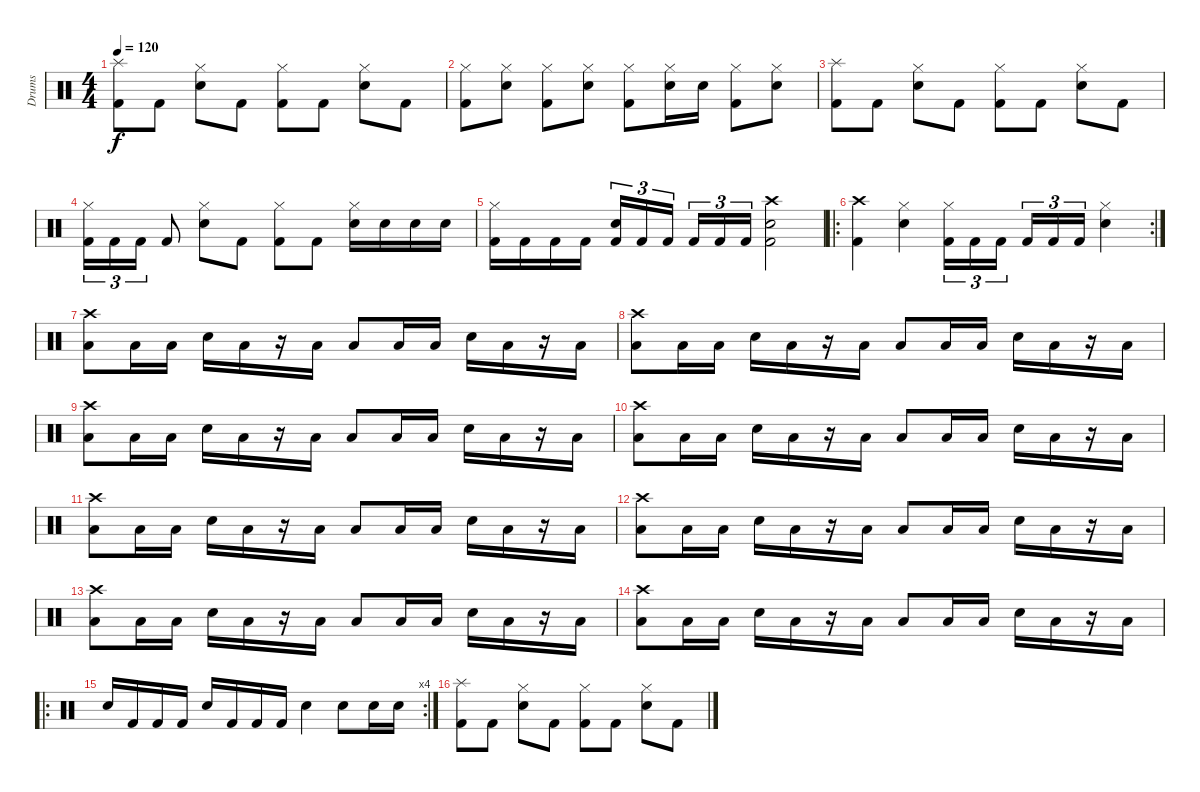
\track ("Drums" "Drums") {instrument percussion}
\staff {score}
\articulation defaults
\ts (4 4)
\tempo 120
\clef neutral
\ks c
("Splash (hit)" "Kick (hit) 2").8{dy f} "Kick (hit) 2".8 ("Hi-Hat (closed)" "Electric Snare (hit)").8 "Kick (hit) 2".8 ("Hi-Hat (closed)" "Kick (hit) 2").8 "Kick (hit) 2".8 ("Hi-Hat (closed)" "Electric Snare (hit)").8 "Kick (hit) 2".8 |
("Hi-Hat (closed)" "Kick (hit) 2").8 ("Hi-Hat (closed)" "Electric Snare (hit)").8 ("Hi-Hat (closed)" "Kick (hit) 2").8 ("Hi-Hat (closed)" "Electric Snare (hit)").8 ("Hi-Hat (closed)" "Kick (hit) 2").8 ("Hi-Hat (closed)" "Electric Snare (hit)").16 "Electric Snare (hit)".16 ("Hi-Hat (closed)" "Kick (hit) 2").8 ("Hi-Hat (closed)" "Electric Snare (hit)").8 |
("Splash (hit)" "Kick (hit) 2").8 "Kick (hit) 2".8 ("Hi-Hat (closed)" "Electric Snare (hit)").8 "Kick (hit) 2".8 ("Hi-Hat (closed)" "Kick (hit) 2").8 "Kick (hit) 2".8 ("Hi-Hat (closed)" "Electric Snare (hit)").8 "Kick (hit) 2".8 |
("Hi-Hat (closed)" "Kick (hit) 2").16{tu (3 2)} "Kick (hit) 2".16{tu (3 2)} "Kick (hit) 2".16{tu (3 2)} "Kick (hit) 2".8 ("Hi-Hat (closed)" "Electric Snare (hit)").8 "Kick (hit) 2".8 ("Hi-Hat (closed)" "Kick (hit) 2").8 "Kick (hit) 2".8 ("Hi-Hat (closed)" "Electric Snare (hit)").16 "Electric Snare (hit)".16 "Electric Snare (hit)".16 "Electric Snare (hit)".16 |
("Hi-Hat (closed)" "Kick (hit) 2").16 "Kick (hit) 2".16 "Kick (hit) 2".16 "Kick (hit) 2".16 ("Electric Snare (hit)" "Kick (hit) 2").16{tu (3 2)} "Kick (hit) 2".16{tu (3 2)} "Kick (hit) 2".16{tu (3 2)} "Kick (hit) 2".16{tu (3 2)} "Kick (hit) 2".16{tu (3 2)} "Kick (hit) 2".16{tu (3 2)} ("Crash high (hit)" "Electric Snare (hit)" "Kick (hit) 2").2 |
\ro
\rc 2
("Crash high (hit)" "Kick (hit) 2").4 ("Hi-Hat (closed)" "Electric Snare (hit)").4 ("Hi-Hat (closed)" "Kick (hit) 2").16{tu (3 2)} "Kick (hit) 2".16{tu (3 2)} "Kick (hit) 2".16{tu (3 2)} "Kick (hit) 2".16{tu (3 2)} "Kick (hit) 2".16{tu (3 2)} "Kick (hit) 2".16{tu (3 2)} ("Hi-Hat (closed)" "Electric Snare (hit)").4 |
("Crash high (hit)" "Low Floor Tom (hit)").8 "Low Floor Tom (hit)".16 "Low Floor Tom (hit)".16 "Electric Snare (hit)".16 "Low Floor Tom (hit)".16 r.16 "Low Floor Tom (hit)".16 "Low Floor Tom (hit)".8 "Low Floor Tom (hit)".16 "Low Floor Tom (hit)".16 "Electric Snare (hit)".16 "Low Floor Tom (hit)".16 r.16 "Low Floor Tom (hit)".16 |
("Crash high (hit)" "Low Floor Tom (hit)").8 "Low Floor Tom (hit)".16 "Low Floor Tom (hit)".16 "Electric Snare (hit)".16 "Low Floor Tom (hit)".16 r.16 "Low Floor Tom (hit)".16 "Low Floor Tom (hit)".8 "Low Floor Tom (hit)".16 "Low Floor Tom (hit)".16 "Electric Snare (hit)".16 "Low Floor Tom (hit)".16 r.16 "Low Floor Tom (hit)".16 |
("Crash high (hit)" "Low Floor Tom (hit)").8 "Low Floor Tom (hit)".16 "Low Floor Tom (hit)".16 "Electric Snare (hit)".16 "Low Floor Tom (hit)".16 r.16 "Low Floor Tom (hit)".16 "Low Floor Tom (hit)".8 "Low Floor Tom (hit)".16 "Low Floor Tom (hit)".16 "Electric Snare (hit)".16 "Low Floor Tom (hit)".16 r.16 "Low Floor Tom (hit)".16 |
("Crash high (hit)" "Low Floor Tom (hit)").8 "Low Floor Tom (hit)".16 "Low Floor Tom (hit)".16 "Electric Snare (hit)".16 "Low Floor Tom (hit)".16 r.16 "Low Floor Tom (hit)".16 "Low Floor Tom (hit)".8 "Low Floor Tom (hit)".16 "Low Floor Tom (hit)".16 "Electric Snare (hit)".16 "Low Floor Tom (hit)".16 r.16 "Low Floor Tom (hit)".16 |
("Crash high (hit)" "Low Floor Tom (hit)").8 "Low Floor Tom (hit)".16 "Low Floor Tom (hit)".16 "Electric Snare (hit)".16 "Low Floor Tom (hit)".16 r.16 "Low Floor Tom (hit)".16 "Low Floor Tom (hit)".8 "Low Floor Tom (hit)".16 "Low Floor Tom (hit)".16 "Electric Snare (hit)".16 "Low Floor Tom (hit)".16 r.16 "Low Floor Tom (hit)".16 |
("Crash high (hit)" "Low Floor Tom (hit)").8 "Low Floor Tom (hit)".16 "Low Floor Tom (hit)".16 "Electric Snare (hit)".16 "Low Floor Tom (hit)".16 r.16 "Low Floor Tom (hit)".16 "Low Floor Tom (hit)".8 "Low Floor Tom (hit)".16 "Low Floor Tom (hit)".16 "Electric Snare (hit)".16 "Low Floor Tom (hit)".16 r.16 "Low Floor Tom (hit)".16 |
("Crash high (hit)" "Low Floor Tom (hit)").8 "Low Floor Tom (hit)".16 "Low Floor Tom (hit)".16 "Electric Snare (hit)".16 "Low Floor Tom (hit)".16 r.16 "Low Floor Tom (hit)".16 "Low Floor Tom (hit)".8 "Low Floor Tom (hit)".16 "Low Floor Tom (hit)".16 "Electric Snare (hit)".16 "Low Floor Tom (hit)".16 r.16 "Low Floor Tom (hit)".16 |
("Crash high (hit)" "Low Floor Tom (hit)").8 "Low Floor Tom (hit)".16 "Low Floor Tom (hit)".16 "Electric Snare (hit)".16 "Low Floor Tom (hit)".16 r.16 "Low Floor Tom (hit)".16 "Low Floor Tom (hit)".8 "Low Floor Tom (hit)".16 "Low Floor Tom (hit)".16 "Electric Snare (hit)".16 "Low Floor Tom (hit)".16 r.16 "Low Floor Tom (hit)".16 |
\ro
\rc 4 "Electric Snare (hit)".16 "Kick (hit) 2".16 "Kick (hit) 2".16 "Kick (hit) 2".16 "Electric Snare (hit)".16 "Kick (hit) 2".16 "Kick (hit) 2".16 "Kick (hit) 2".16 "Electric Snare (hit)".4 "Electric Snare (hit)".8 "Electric Snare (hit)".16 "Electric Snare (hit)".16
|
("Splash (hit)" "Kick (hit) 2").8 "Kick (hit) 2".8 ("Hi-Hat (closed)" "Electric Snare (hit)").8 "Kick (hit) 2".8 ("Hi-Hat (closed)" "Kick (hit) 2").8 "Kick (hit) 2".8 ("Hi-Hat (closed)" "Electric Snare (hit)").8 "Kick (hit) 2".8
